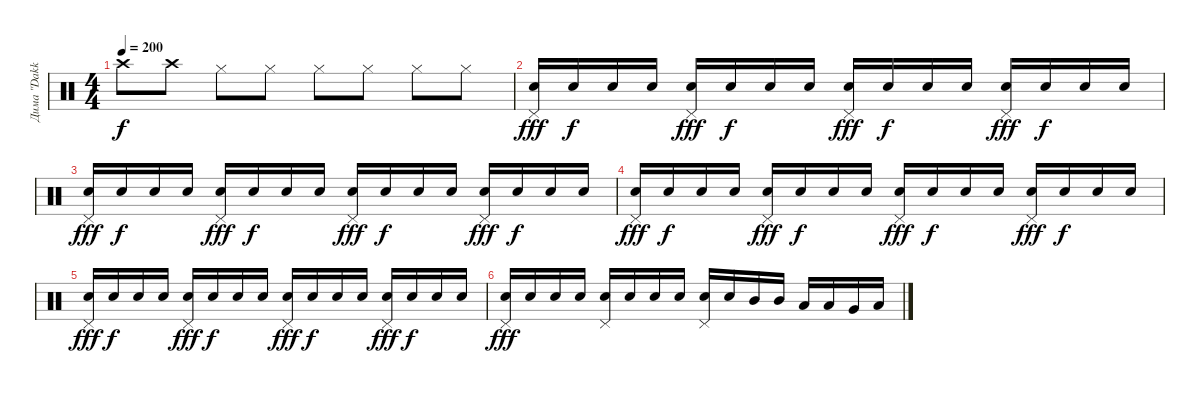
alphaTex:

\track ("Дима \"Dakkar\" Кеменов" "Дима \"Dakk") {instrument percussion}
\staff
\articulation defaults
\ts (4 4)
\tempo 200
\clef neutral
\ks c "Crash high (hit)".8{dy f} "Crash high (hit)".8 "Hi-Hat (closed)".8 "Hi-Hat (closed)".8 "Hi-Hat (closed)".8 "Hi-Hat (closed)".8 "Hi-Hat (closed)".8 "Hi-Hat (closed)".8
|
("Pedal Hi-Hat (hit)" "Snare (hit) 2").16{dy fff} "Snare (hit) 2".16{dy f} "Snare (hit) 2".16 "Snare (hit) 2".16 ("Pedal Hi-Hat (hit)" "Snare (hit) 2").16{dy fff} "Snare (hit) 2".16{dy f} "Snare (hit) 2".16 "Snare (hit) 2".16 ("Pedal Hi-Hat (hit)" "Snare (hit) 2").16{dy fff} "Snare (hit) 2".16{dy f} "Snare (hit) 2".16 "Snare (hit) 2".16 ("Pedal Hi-Hat (hit)" "Snare (hit) 2").16{dy fff} "Snare (hit) 2".16{dy f} "Snare (hit) 2".16 "Snare (hit) 2".16 |
("Pedal Hi-Hat (hit)" "Snare (hit) 2").16{dy fff} "Snare (hit) 2".16{dy f} "Snare (hit) 2".16 "Snare (hit) 2".16 ("Pedal Hi-Hat (hit)" "Snare (hit) 2").16{dy fff} "Snare (hit) 2".16{dy f} "Snare (hit) 2".16 "Snare (hit) 2".16 ("Pedal Hi-Hat (hit)" "Snare (hit) 2").16{dy fff} "Snare (hit) 2".16{dy f} "Snare (hit) 2".16 "Snare (hit) 2".16 ("Pedal Hi-Hat (hit)" "Snare (hit) 2").16{dy fff} "Snare (hit) 2".16{dy f} "Snare (hit) 2".16 "Snare (hit) 2".16 |
("Pedal Hi-Hat (hit)" "Snare (hit) 2").16{dy fff} "Snare (hit) 2".16{dy f} "Snare (hit) 2".16 "Snare (hit) 2".16 ("Pedal Hi-Hat (hit)" "Snare (hit) 2").16{dy fff} "Snare (hit) 2".16{dy f} "Snare (hit) 2".16 "Snare (hit) 2".16 ("Pedal Hi-Hat (hit)" "Snare (hit) 2").16{dy fff} "Snare (hit) 2".16{dy f} "Snare (hit) 2".16 "Snare (hit) 2".16 ("Pedal Hi-Hat (hit)" "Snare (hit) 2").16{dy fff} "Snare (hit) 2".16{dy f} "Snare (hit) 2".16 "Snare (hit) 2".16 |
("Pedal Hi-Hat (hit)" "Snare (hit) 2").16{dy fff} "Snare (hit) 2".16{dy f} "Snare (hit) 2".16 "Snare (hit) 2".16 ("Pedal Hi-Hat (hit)" "Snare (hit) 2").16{dy fff} "Snare (hit) 2".16{dy f} "Snare (hit) 2".16 "Snare (hit) 2".16 ("Pedal Hi-Hat (hit)" "Snare (hit) 2").16{dy fff} "Snare (hit) 2".16{dy f} "Snare (hit) 2".16 "Snare (hit) 2".16 ("Pedal Hi-Hat (hit)" "Snare (hit) 2").16{dy fff} "Snare (hit) 2".16{dy f} "Snare (hit) 2".16 "Snare (hit) 2".16 |
("Pedal Hi-Hat (hit)" "Snare (hit) 2").16{dy fff} "Snare (hit) 2".16 "Snare (hit) 2".16 "Snare (hit) 2".16 ("Pedal Hi-Hat (hit)" "Snare (hit) 2").16 "Snare (hit) 2".16 "Snare (hit) 2".16 "Snare (hit) 2".16 ("Pedal Hi-Hat (hit)" "Snare (hit) 2").16 "Snare (hit) 2".16 "Mid Tom (hit)".16 "Mid Tom (hit)".16 "Low Tom (hit)".16 "Low Tom (hit)".16 "Very Low Tom (hit)".16 "Low Floor Tom (hit)".16
